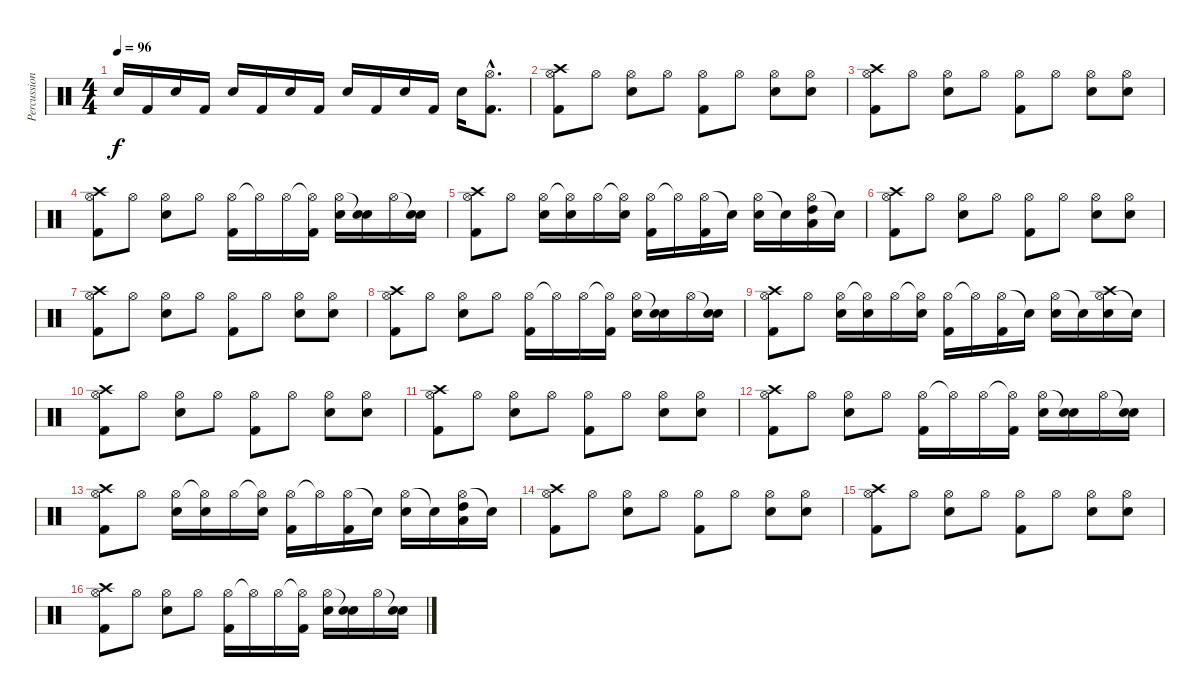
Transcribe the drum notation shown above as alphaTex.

\track ("Percussion" "Percussion") {instrument percussion}
\staff {score}
\articulation defaults
\ts (4 4)
\tempo 96
\clef neutral
\ks c "Electric Snare (hit)".16{dy f} "Kick (hit) 2".16 "Electric Snare (hit)".16 "Kick (hit) 2".16 "Electric Snare (hit)".16 "Kick (hit) 2".16 "Electric Snare (hit)".16 "Kick (hit) 2".16 "Electric Snare (hit)".16 "Kick (hit) 2".16 "Electric Snare (hit)".16 "Kick (hit) 2".16 "Electric Snare (hit)".16
("Hi-Hat (open)"{hac} "Kick (hit) 2"{hac}).8{d} |
("Hi-Hat (open)" "Kick (hit) 2" "Crash high (hit)").8 "Hi-Hat (open)".8 ("Hi-Hat (open)" "Electric Snare (hit)").8 "Hi-Hat (open)".8 ("Hi-Hat (open)" "Kick (hit) 2").8 "Hi-Hat (open)".8 ("Hi-Hat (open)" "Electric Snare (hit)").8 ("Hi-Hat (open)" "Electric Snare (hit)").8 |
("Hi-Hat (open)" "Kick (hit) 2" "Crash high (hit)").8 "Hi-Hat (open)".8 ("Hi-Hat (open)" "Electric Snare (hit)").8 "Hi-Hat (open)".8 ("Hi-Hat (open)" "Kick (hit) 2").8 "Hi-Hat (open)".8 ("Hi-Hat (open)" "Electric Snare (hit)").8 ("Hi-Hat (open)" "Electric Snare (hit)").8 |
("Hi-Hat (open)" "Kick (hit) 2" "Crash high (hit)").8 "Hi-Hat (open)".8 ("Hi-Hat (open)" "Electric Snare (hit)").8 "Hi-Hat (open)".8 ("Hi-Hat (open)" "Kick (hit) 2").16 "Hi-Hat (open)"{t}.16 "Hi-Hat (open)".16 ("Hi-Hat (open)"{t} "Kick (hit) 2").16 ("Hi-Hat (open)" "Electric Snare (hit)").16 ("Snare (hit)"{t} "Electric Snare (hit)").16 "Hi-Hat (open)".16 ("Snare (hit)"{t} "Electric Snare (hit)").16 |
("Hi-Hat (open)" "Kick (hit) 2" "Crash high (hit)").8 "Hi-Hat (open)".8 ("Hi-Hat (open)" "Electric Snare (hit)").16 ("Hi-Hat (open)"{t} "Electric Snare (hit)").16 "Hi-Hat (open)".16 ("Hi-Hat (open)"{t} "Electric Snare (hit)").16 ("Hi-Hat (open)" "Kick (hit) 2").16 "Hi-Hat (open)"{t}.16 ("Hi-Hat (open)" "Kick (hit) 2").16 "Snare (hit)"{t}.16 ("Hi-Hat (open)" "Electric Snare (hit)").16 "Snare (hit)"{t}.16 ("Hi-Hat (open)" "High Tom (hit)" "Low Tom (hit)").16 "Snare (hit)"{t}.16 |
("Hi-Hat (open)" "Kick (hit) 2" "Crash high (hit)").8 "Hi-Hat (open)".8 ("Hi-Hat (open)" "Electric Snare (hit)").8 "Hi-Hat (open)".8 ("Hi-Hat (open)" "Kick (hit) 2").8 "Hi-Hat (open)".8 ("Hi-Hat (open)" "Electric Snare (hit)").8 ("Hi-Hat (open)" "Electric Snare (hit)").8 |
("Hi-Hat (open)" "Kick (hit) 2" "Crash high (hit)").8 "Hi-Hat (open)".8 ("Hi-Hat (open)" "Electric Snare (hit)").8 "Hi-Hat (open)".8 ("Hi-Hat (open)" "Kick (hit) 2").8 "Hi-Hat (open)".8 ("Hi-Hat (open)" "Electric Snare (hit)").8 ("Hi-Hat (open)" "Electric Snare (hit)").8 |
("Hi-Hat (open)" "Kick (hit) 2" "Crash high (hit)").8 "Hi-Hat (open)".8 ("Hi-Hat (open)" "Electric Snare (hit)").8 "Hi-Hat (open)".8 ("Hi-Hat (open)" "Kick (hit) 2").16 "Hi-Hat (open)"{t}.16 "Hi-Hat (open)".16 ("Hi-Hat (open)"{t} "Kick (hit) 2").16 ("Hi-Hat (open)" "Electric Snare (hit)").16 ("Snare (hit)"{t} "Electric Snare (hit)").16 "Hi-Hat (open)".16 ("Snare (hit)"{t} "Electric Snare (hit)").16 |
("Hi-Hat (open)" "Kick (hit) 2" "Crash high (hit)").8 "Hi-Hat (open)".8 ("Hi-Hat (open)" "Electric Snare (hit)").16 ("Hi-Hat (open)"{t} "Electric Snare (hit)").16 "Hi-Hat (open)".16 ("Hi-Hat (open)"{t} "Electric Snare (hit)").16 ("Hi-Hat (open)" "Kick (hit) 2").16 "Hi-Hat (open)"{t}.16 ("Hi-Hat (open)" "Kick (hit) 2").16 "Snare (hit)"{t}.16 ("Hi-Hat (open)" "Electric Snare (hit)").16 "Snare (hit)"{t}.16 ("Hi-Hat (open)" "Electric Snare (hit)" "Crash high (hit)").16 "Snare (hit)"{t}.16 |
("Hi-Hat (open)" "Kick (hit) 2" "Crash high (hit)").8 "Hi-Hat (open)".8 ("Hi-Hat (open)" "Electric Snare (hit)").8 "Hi-Hat (open)".8 ("Hi-Hat (open)" "Kick (hit) 2").8 "Hi-Hat (open)".8 ("Hi-Hat (open)" "Electric Snare (hit)").8 ("Hi-Hat (open)" "Electric Snare (hit)").8 |
("Hi-Hat (open)" "Kick (hit) 2" "Crash high (hit)").8 "Hi-Hat (open)".8 ("Hi-Hat (open)" "Electric Snare (hit)").8 "Hi-Hat (open)".8 ("Hi-Hat (open)" "Kick (hit) 2").8 "Hi-Hat (open)".8 ("Hi-Hat (open)" "Electric Snare (hit)").8 ("Hi-Hat (open)" "Electric Snare (hit)").8 |
("Hi-Hat (open)" "Kick (hit) 2" "Crash high (hit)").8 "Hi-Hat (open)".8 ("Hi-Hat (open)" "Electric Snare (hit)").8 "Hi-Hat (open)".8 ("Hi-Hat (open)" "Kick (hit) 2").16 "Hi-Hat (open)"{t}.16 "Hi-Hat (open)".16 ("Hi-Hat (open)"{t} "Kick (hit) 2").16 ("Hi-Hat (open)" "Electric Snare (hit)").16 ("Snare (hit)"{t} "Electric Snare (hit)").16 "Hi-Hat (open)".16 ("Snare (hit)"{t} "Electric Snare (hit)").16 |
("Hi-Hat (open)" "Kick (hit) 2" "Crash high (hit)").8 "Hi-Hat (open)".8 ("Hi-Hat (open)" "Electric Snare (hit)").16 ("Hi-Hat (open)"{t} "Electric Snare (hit)").16 "Hi-Hat (open)".16 ("Hi-Hat (open)"{t} "Electric Snare (hit)").16 ("Hi-Hat (open)" "Kick (hit) 2").16 "Hi-Hat (open)"{t}.16 ("Hi-Hat (open)" "Kick (hit) 2").16 "Snare (hit)"{t}.16 ("Hi-Hat (open)" "Electric Snare (hit)").16 "Snare (hit)"{t}.16 ("Hi-Hat (open)" "High Tom (hit)" "Low Tom (hit)").16 "Snare (hit)"{t}.16 |
("Hi-Hat (open)" "Kick (hit) 2" "Crash high (hit)").8 "Hi-Hat (open)".8 ("Hi-Hat (open)" "Electric Snare (hit)").8 "Hi-Hat (open)".8 ("Hi-Hat (open)" "Kick (hit) 2").8 "Hi-Hat (open)".8 ("Hi-Hat (open)" "Electric Snare (hit)").8 ("Hi-Hat (open)" "Electric Snare (hit)").8 |
("Hi-Hat (open)" "Kick (hit) 2" "Crash high (hit)").8 "Hi-Hat (open)".8 ("Hi-Hat (open)" "Electric Snare (hit)").8 "Hi-Hat (open)".8 ("Hi-Hat (open)" "Kick (hit) 2").8 "Hi-Hat (open)".8 ("Hi-Hat (open)" "Electric Snare (hit)").8 ("Hi-Hat (open)" "Electric Snare (hit)").8 |
("Hi-Hat (open)" "Kick (hit) 2" "Crash high (hit)").8 "Hi-Hat (open)".8 ("Hi-Hat (open)" "Electric Snare (hit)").8 "Hi-Hat (open)".8 ("Hi-Hat (open)" "Kick (hit) 2").16 "Hi-Hat (open)"{t}.16 "Hi-Hat (open)".16 ("Hi-Hat (open)"{t} "Kick (hit) 2").16 ("Hi-Hat (open)" "Electric Snare (hit)").16 ("Snare (hit)"{t} "Electric Snare (hit)").16 "Hi-Hat (open)".16 ("Snare (hit)"{t} "Electric Snare (hit)").16
